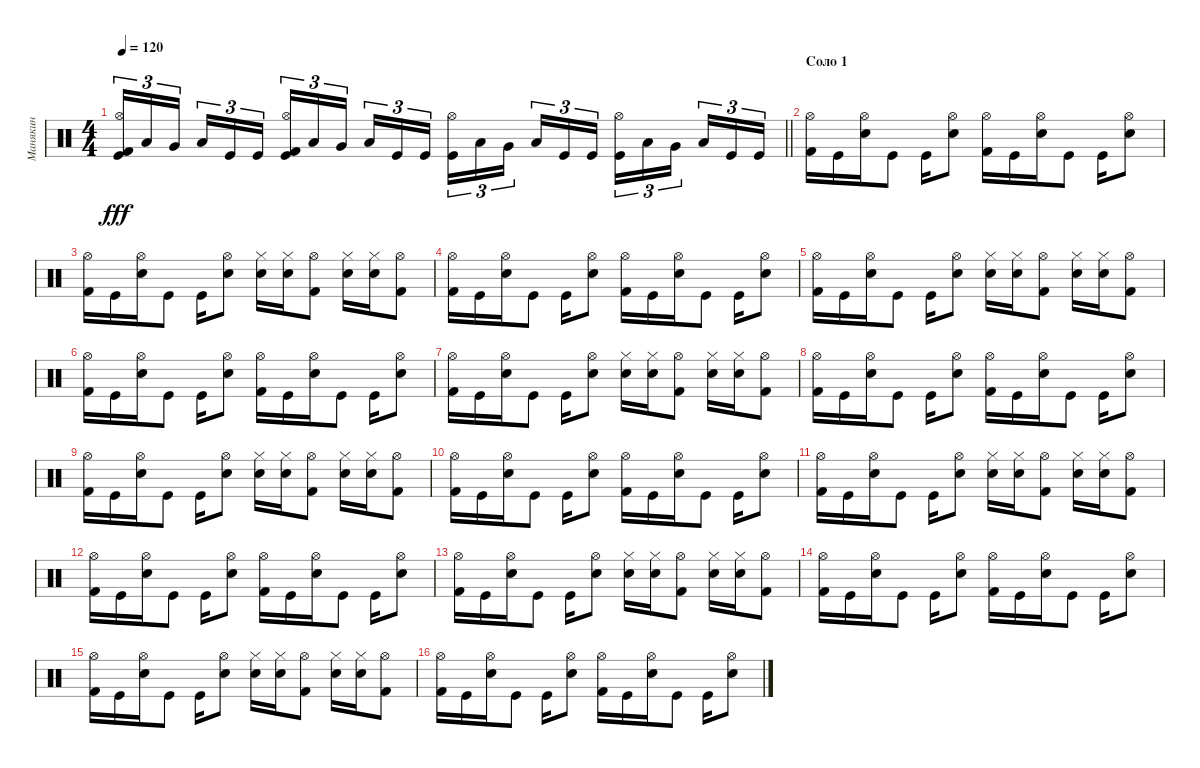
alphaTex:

\track ("Манякин" "Манякин") {instrument percussion}
\staff {score}
\articulation defaults
\ts (4 4)
\tempo 120
\clef neutral
\barLineRight lightlight
\ks c
("Kick (hit) 2" "Hi-Hat (open)" "Kick (hit)").16{tu (3 2) dy fff} "Low Tom (hit)".16{tu (3 2)} "Very Low Tom (hit)".16{tu (3 2)} "Low Floor Tom (hit)".16{tu (3 2)} "Kick (hit)".16{tu (3 2)} "Kick (hit)".16{tu (3 2)} ("Kick (hit) 2" "Hi-Hat (open)" "Kick (hit)").16{tu (3 2)} "Low Tom (hit)".16{tu (3 2)} "Very Low Tom (hit)".16{tu (3 2)} "Low Floor Tom (hit)".16{tu (3 2)} "Kick (hit)".16{tu (3 2)} "Kick (hit)".16{tu (3 2)} ("Hi-Hat (open)" "Kick (hit)").16{tu (3 2)} "Low Tom (hit)".16{tu (3 2)} "Very Low Tom (hit)".16{tu (3 2)} "Low Floor Tom (hit)".16{tu (3 2)} "Kick (hit)".16{tu (3 2)} "Kick (hit)".16{tu (3 2)} ("Hi-Hat (open)" "Kick (hit)").16{tu (3 2)} "Low Tom (hit)".16{tu (3 2)} "Very Low Tom (hit)".16{tu (3 2)} "Low Floor Tom (hit)".16{tu (3 2)} "Kick (hit)".16{tu (3 2)} "Kick (hit)".16{tu (3 2)} |
\section ("" "Соло 1")
("Hi-Hat (open)" "Kick (hit) 2").16 "Kick (hit)".16 ("Hi-Hat (open)" "Snare (hit) 2").16 "Kick (hit)".8 "Kick (hit)".16 ("Hi-Hat (open)" "Snare (hit) 2").8 ("Kick (hit) 2" "Hi-Hat (open)").16 "Kick (hit)".16 ("Hi-Hat (open)" "Snare (hit) 2").16 "Kick (hit)".8 "Kick (hit)".16 ("Hi-Hat (open)" "Snare (hit) 2").8 |
("Hi-Hat (open)" "Kick (hit) 2").16 "Kick (hit)".16 ("Hi-Hat (open)" "Snare (hit) 2").16 "Kick (hit)".8 "Kick (hit)".16 ("Hi-Hat (open)" "Snare (hit) 2").8 ("Hi-Hat (closed)" "Snare (hit) 2").16 ("Hi-Hat (closed)" "Snare (hit) 2").16 ("Hi-Hat (open)" "Kick (hit) 2").8 ("Hi-Hat (closed)" "Snare (hit) 2").16 ("Hi-Hat (closed)" "Snare (hit) 2").16 ("Hi-Hat (open)" "Kick (hit) 2").8 |
("Hi-Hat (open)" "Kick (hit) 2").16 "Kick (hit)".16 ("Hi-Hat (open)" "Snare (hit) 2").16 "Kick (hit)".8 "Kick (hit)".16 ("Hi-Hat (open)" "Snare (hit) 2").8 ("Kick (hit) 2" "Hi-Hat (open)").16 "Kick (hit)".16 ("Hi-Hat (open)" "Snare (hit) 2").16 "Kick (hit)".8 "Kick (hit)".16 ("Hi-Hat (open)" "Snare (hit) 2").8 |
("Hi-Hat (open)" "Kick (hit) 2").16 "Kick (hit)".16 ("Hi-Hat (open)" "Snare (hit) 2").16 "Kick (hit)".8 "Kick (hit)".16 ("Hi-Hat (open)" "Snare (hit) 2").8 ("Hi-Hat (closed)" "Snare (hit) 2").16 ("Hi-Hat (closed)" "Snare (hit) 2").16 ("Hi-Hat (open)" "Kick (hit) 2").8 ("Hi-Hat (closed)" "Snare (hit) 2").16 ("Hi-Hat (closed)" "Snare (hit) 2").16 ("Hi-Hat (open)" "Kick (hit) 2").8 |
("Hi-Hat (open)" "Kick (hit) 2").16 "Kick (hit)".16 ("Hi-Hat (open)" "Snare (hit) 2").16 "Kick (hit)".8 "Kick (hit)".16 ("Hi-Hat (open)" "Snare (hit) 2").8 ("Kick (hit) 2" "Hi-Hat (open)").16 "Kick (hit)".16 ("Hi-Hat (open)" "Snare (hit) 2").16 "Kick (hit)".8 "Kick (hit)".16 ("Hi-Hat (open)" "Snare (hit) 2").8 |
("Hi-Hat (open)" "Kick (hit) 2").16 "Kick (hit)".16 ("Hi-Hat (open)" "Snare (hit) 2").16 "Kick (hit)".8 "Kick (hit)".16 ("Hi-Hat (open)" "Snare (hit) 2").8 ("Hi-Hat (closed)" "Snare (hit) 2").16 ("Hi-Hat (closed)" "Snare (hit) 2").16 ("Hi-Hat (open)" "Kick (hit) 2").8 ("Hi-Hat (closed)" "Snare (hit) 2").16 ("Hi-Hat (closed)" "Snare (hit) 2").16 ("Hi-Hat (open)" "Kick (hit) 2").8 |
("Hi-Hat (open)" "Kick (hit) 2").16 "Kick (hit)".16 ("Hi-Hat (open)" "Snare (hit) 2").16 "Kick (hit)".8 "Kick (hit)".16 ("Hi-Hat (open)" "Snare (hit) 2").8 ("Kick (hit) 2" "Hi-Hat (open)").16 "Kick (hit)".16 ("Hi-Hat (open)" "Snare (hit) 2").16 "Kick (hit)".8 "Kick (hit)".16 ("Hi-Hat (open)" "Snare (hit) 2").8 |
("Hi-Hat (open)" "Kick (hit) 2").16 "Kick (hit)".16 ("Hi-Hat (open)" "Snare (hit) 2").16 "Kick (hit)".8 "Kick (hit)".16 ("Hi-Hat (open)" "Snare (hit) 2").8 ("Hi-Hat (closed)" "Snare (hit) 2").16 ("Hi-Hat (closed)" "Snare (hit) 2").16 ("Hi-Hat (open)" "Kick (hit) 2").8 ("Hi-Hat (closed)" "Snare (hit) 2").16 ("Hi-Hat (closed)" "Snare (hit) 2").16 ("Hi-Hat (open)" "Kick (hit) 2").8 |
("Hi-Hat (open)" "Kick (hit) 2").16 "Kick (hit)".16 ("Hi-Hat (open)" "Snare (hit) 2").16 "Kick (hit)".8 "Kick (hit)".16 ("Hi-Hat (open)" "Snare (hit) 2").8 ("Kick (hit) 2" "Hi-Hat (open)").16 "Kick (hit)".16 ("Hi-Hat (open)" "Snare (hit) 2").16 "Kick (hit)".8 "Kick (hit)".16 ("Hi-Hat (open)" "Snare (hit) 2").8 |
("Hi-Hat (open)" "Kick (hit) 2").16 "Kick (hit)".16 ("Hi-Hat (open)" "Snare (hit) 2").16 "Kick (hit)".8 "Kick (hit)".16 ("Hi-Hat (open)" "Snare (hit) 2").8 ("Hi-Hat (closed)" "Snare (hit) 2").16 ("Hi-Hat (closed)" "Snare (hit) 2").16 ("Hi-Hat (open)" "Kick (hit) 2").8 ("Hi-Hat (closed)" "Snare (hit) 2").16 ("Hi-Hat (closed)" "Snare (hit) 2").16 ("Hi-Hat (open)" "Kick (hit) 2").8 |
("Hi-Hat (open)" "Kick (hit) 2").16 "Kick (hit)".16 ("Hi-Hat (open)" "Snare (hit) 2").16 "Kick (hit)".8 "Kick (hit)".16 ("Hi-Hat (open)" "Snare (hit) 2").8 ("Kick (hit) 2" "Hi-Hat (open)").16 "Kick (hit)".16 ("Hi-Hat (open)" "Snare (hit) 2").16 "Kick (hit)".8 "Kick (hit)".16 ("Hi-Hat (open)" "Snare (hit) 2").8 |
("Hi-Hat (open)" "Kick (hit) 2").16 "Kick (hit)".16 ("Hi-Hat (open)" "Snare (hit) 2").16 "Kick (hit)".8 "Kick (hit)".16 ("Hi-Hat (open)" "Snare (hit) 2").8 ("Hi-Hat (closed)" "Snare (hit) 2").16 ("Hi-Hat (closed)" "Snare (hit) 2").16 ("Hi-Hat (open)" "Kick (hit) 2").8 ("Hi-Hat (closed)" "Snare (hit) 2").16 ("Hi-Hat (closed)" "Snare (hit) 2").16 ("Hi-Hat (open)" "Kick (hit) 2").8 |
("Hi-Hat (open)" "Kick (hit) 2").16 "Kick (hit)".16 ("Hi-Hat (open)" "Snare (hit) 2").16 "Kick (hit)".8 "Kick (hit)".16 ("Hi-Hat (open)" "Snare (hit) 2").8 ("Kick (hit) 2" "Hi-Hat (open)").16 "Kick (hit)".16 ("Hi-Hat (open)" "Snare (hit) 2").16 "Kick (hit)".8 "Kick (hit)".16 ("Hi-Hat (open)" "Snare (hit) 2").8 |
("Hi-Hat (open)" "Kick (hit) 2").16 "Kick (hit)".16 ("Hi-Hat (open)" "Snare (hit) 2").16 "Kick (hit)".8 "Kick (hit)".16 ("Hi-Hat (open)" "Snare (hit) 2").8 ("Hi-Hat (closed)" "Snare (hit) 2").16 ("Hi-Hat (closed)" "Snare (hit) 2").16 ("Hi-Hat (open)" "Kick (hit) 2").8 ("Hi-Hat (closed)" "Snare (hit) 2").16 ("Hi-Hat (closed)" "Snare (hit) 2").16 ("Hi-Hat (open)" "Kick (hit) 2").8 |
("Hi-Hat (open)" "Kick (hit) 2").16 "Kick (hit)".16 ("Hi-Hat (open)" "Snare (hit) 2").16 "Kick (hit)".8 "Kick (hit)".16 ("Hi-Hat (open)" "Snare (hit) 2").8 ("Kick (hit) 2" "Hi-Hat (open)").16 "Kick (hit)".16 ("Hi-Hat (open)" "Snare (hit) 2").16 "Kick (hit)".8 "Kick (hit)".16 ("Hi-Hat (open)" "Snare (hit) 2").8
